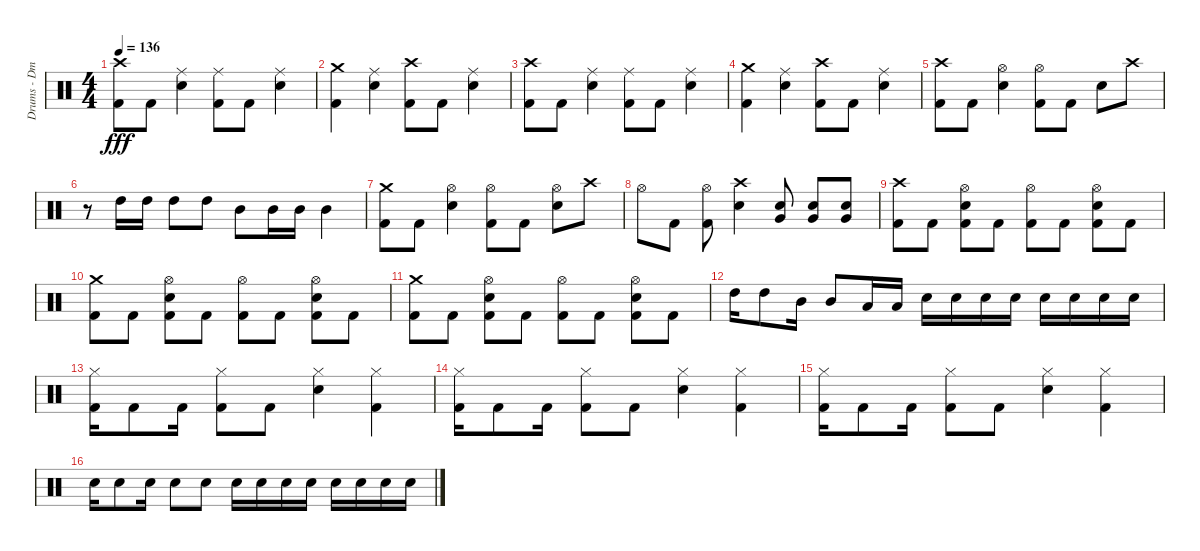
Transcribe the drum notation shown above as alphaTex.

\track ("Drums - Dmitriy Krivenkov" "Drums - Dm") {instrument percussion}
\staff {score}
\articulation defaults
\ts (4 4)
\tempo 136
\clef neutral
\ks c
("Crash high (hit)" "Kick (hit) 2").8{dy fff} "Kick (hit) 2".8 ("Ride (middle)" "Electric Snare (hit)").4 ("Ride (middle)" "Kick (hit) 2").8 "Kick (hit) 2".8 ("Ride (middle)" "Electric Snare (hit)").4 |
("Crash medium (hit)" "Kick (hit) 2").4 ("Ride (middle)" "Electric Snare (hit)").4 ("Crash high (hit)" "Kick (hit) 2").8 "Kick (hit) 2".8 ("Ride (middle)" "Electric Snare (hit)").4 |
("Crash high (hit)" "Kick (hit) 2").8 "Kick (hit) 2".8 ("Ride (middle)" "Electric Snare (hit)").4 ("Ride (middle)" "Kick (hit) 2").8 "Kick (hit) 2".8 ("Ride (middle)" "Electric Snare (hit)").4 |
("Kick (hit) 2" "Crash medium (hit)").4 ("Electric Snare (hit)" "Ride (middle)").4 ("Kick (hit) 2" "Crash high (hit)").8 "Kick (hit) 2".8 ("Electric Snare (hit)" "Ride (middle)").4 |
("Crash high (hit)" "Kick (hit) 2").8 "Kick (hit) 2".8 ("Hi-Hat (open)" "Electric Snare (hit)").4 ("Hi-Hat (open)" "Kick (hit) 2").8 "Kick (hit) 2".8 "Electric Snare (hit)".8 "Crash high (hit)".8 |
r.8 "High Tom (hit)".16 "High Tom (hit)".16 "High Tom (hit)".8 "High Tom (hit)".8 "Mid Tom (hit)".8 "Mid Tom (hit)".16 "Mid Tom (hit)".16 "Mid Tom (hit)".4 |
("Crash medium (hit)" "Kick (hit) 2").8 "Kick (hit) 2".8 ("Hi-Hat (open)" "Electric Snare (hit)").4 ("Hi-Hat (open)" "Kick (hit) 2").8 "Kick (hit) 2".8 ("Hi-Hat (open)" "Electric Snare (hit)").8 "Crash high (hit)".8 |
"Hi-Hat (open)".8 "Kick (hit) 2".8 ("Hi-Hat (open)" "Kick (hit) 2").8 ("Crash high (hit)" "Electric Snare (hit)").4 ("Very Low Tom (hit)" "Electric Snare (hit)").8 ("Very Low Tom (hit)" "Electric Snare (hit)").8 ("Very Low Tom (hit)" "Electric Snare (hit)").8 |
("Crash high (hit)" "Kick (hit) 2").8 "Kick (hit) 2".8 ("Hi-Hat (open)" "Electric Snare (hit)" "Kick (hit) 2").8 "Kick (hit) 2".8 ("Hi-Hat (open)" "Kick (hit) 2").8 "Kick (hit) 2".8 ("Hi-Hat (open)" "Electric Snare (hit)" "Kick (hit) 2").8 "Kick (hit) 2".8 |
("Crash medium (hit)" "Kick (hit) 2").8 "Kick (hit) 2".8 ("Hi-Hat (open)" "Electric Snare (hit)" "Kick (hit) 2").8 "Kick (hit) 2".8 ("Hi-Hat (open)" "Kick (hit) 2").8 "Kick (hit) 2".8 ("Hi-Hat (open)" "Electric Snare (hit)" "Kick (hit) 2").8 "Kick (hit) 2".8 |
("Crash medium (hit)" "Kick (hit) 2").8 "Kick (hit) 2".8 ("Hi-Hat (open)" "Electric Snare (hit)" "Kick (hit) 2").8 "Kick (hit) 2".8 ("Hi-Hat (open)" "Kick (hit) 2").8 "Kick (hit) 2".8 ("Hi-Hat (open)" "Electric Snare (hit)" "Kick (hit) 2").8 "Kick (hit) 2".8 |
"High Tom (hit)".16 "High Tom (hit)".8 "Mid Tom (hit)".16 "Mid Tom (hit)".8 "Low Tom (hit)".16 "Low Tom (hit)".16 "Electric Snare (hit)".16 "Electric Snare (hit)".16 "Electric Snare (hit)".16 "Electric Snare (hit)".16 "Electric Snare (hit)".16 "Electric Snare (hit)".16 "Electric Snare (hit)".16 "Electric Snare (hit)".16 |
("Hi-Hat (closed)" "Kick (hit) 2").16 "Kick (hit) 2".8 "Kick (hit) 2".16 ("Hi-Hat (closed)" "Kick (hit) 2").8 "Kick (hit) 2".8 ("Hi-Hat (closed)" "Electric Snare (hit)").4 ("Hi-Hat (closed)" "Kick (hit) 2").4 |
("Hi-Hat (closed)" "Kick (hit) 2").16 "Kick (hit) 2".8 "Kick (hit) 2".16 ("Hi-Hat (closed)" "Kick (hit) 2").8 "Kick (hit) 2".8 ("Hi-Hat (closed)" "Electric Snare (hit)").4 ("Hi-Hat (closed)" "Kick (hit) 2").4 |
("Hi-Hat (closed)" "Kick (hit) 2").16 "Kick (hit) 2".8 "Kick (hit) 2".16 ("Hi-Hat (closed)" "Kick (hit) 2").8 "Kick (hit) 2".8 ("Hi-Hat (closed)" "Electric Snare (hit)").4 ("Hi-Hat (closed)" "Kick (hit) 2").4 |
"Electric Snare (hit)".16 "Electric Snare (hit)".8 "Electric Snare (hit)".16 "Electric Snare (hit)".8 "Electric Snare (hit)".8 "Electric Snare (hit)".16 "Electric Snare (hit)".16 "Electric Snare (hit)".16 "Electric Snare (hit)".16 "Electric Snare (hit)".16 "Electric Snare (hit)".16 "Electric Snare (hit)".16 "Electric Snare (hit)".16
